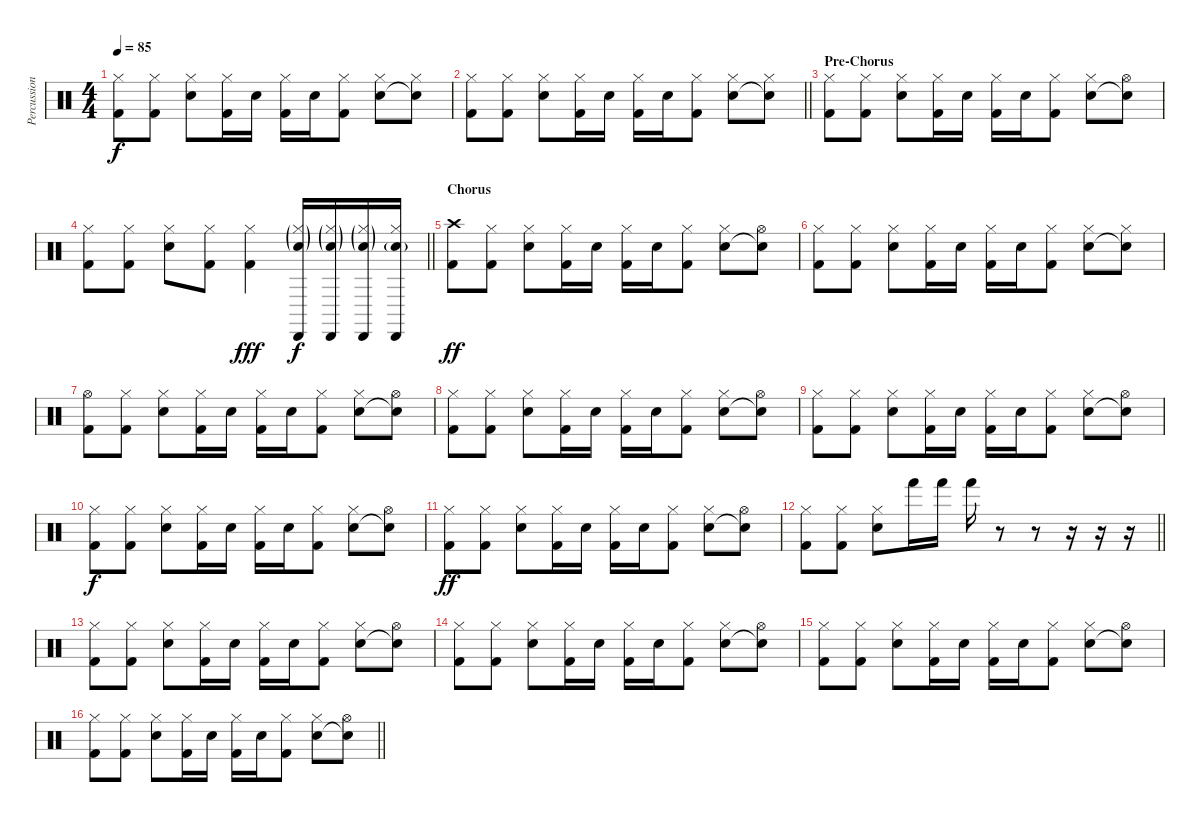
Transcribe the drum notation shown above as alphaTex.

\track ("Percussion" "Percussion") {instrument percussion}
\staff {score}
\articulation defaults
\ts (4 4)
\tempo 85
\clef neutral
\ks c
("Hi-Hat (closed)" "Kick (hit) 2").8{dy f} ("Hi-Hat (closed)" "Kick (hit) 2").8 ("Hi-Hat (closed)" "Electric Snare (hit)").8 ("Hi-Hat (closed)" "Kick (hit) 2").16 "Electric Snare (hit)".16 ("Hi-Hat (closed)" "Kick (hit) 2").16 "Electric Snare (hit)".16 ("Hi-Hat (closed)" "Kick (hit) 2").8 ("Hi-Hat (closed)" "Electric Snare (hit)").8 ("Hi-Hat (closed)" "Snare (hit)"{t}).8 |
\barLineRight lightlight
("Hi-Hat (closed)" "Kick (hit) 2").8 ("Hi-Hat (closed)" "Kick (hit) 2").8 ("Hi-Hat (closed)" "Electric Snare (hit)").8 ("Hi-Hat (closed)" "Kick (hit) 2").16 "Electric Snare (hit)".16 ("Hi-Hat (closed)" "Kick (hit) 2").16 "Electric Snare (hit)".16 ("Hi-Hat (closed)" "Kick (hit) 2").8 ("Hi-Hat (closed)" "Electric Snare (hit)").8 ("Hi-Hat (closed)" "Snare (hit)"{t}).8 |
\section ("" "Pre-Chorus")
("Hi-Hat (closed)" "Kick (hit) 2").8 ("Hi-Hat (closed)" "Kick (hit) 2").8 ("Hi-Hat (closed)" "Electric Snare (hit)").8 ("Hi-Hat (closed)" "Kick (hit) 2").16 "Electric Snare (hit)".16 ("Hi-Hat (closed)" "Kick (hit) 2").16 "Electric Snare (hit)".16 ("Hi-Hat (closed)" "Kick (hit) 2").8 ("Hi-Hat (closed)" "Electric Snare (hit)").8 ("Hi-Hat (open)" "Snare (hit)"{t}).8 |
\barLineRight lightlight
("Hi-Hat (closed)" "Kick (hit) 2").8 ("Hi-Hat (closed)" "Kick (hit) 2").8 ("Hi-Hat (closed)" "Electric Snare (hit)").8 ("Hi-Hat (closed)" "Kick (hit) 2").8 ("Hi-Hat (closed)" "Kick (hit) 2").4{dy fff} ("Hi-Hat (closed)"{g} "Cabasa (hit)" "Electric Snare (hit)"{g}).16{dy f} ("Hi-Hat (closed)"{g} "Cabasa (hit)" "Electric Snare (hit)"{g}).16 ("Hi-Hat (closed)"{g} "Cabasa (hit)" "Electric Snare (hit)"{g}).16 ("Hi-Hat (closed)" "Cabasa (hit)" "Electric Snare (hit)"{g}).16 |
\section ("" "Chorus")
("Crash high (hit)" "Kick (hit) 2").8{dy ff} ("Hi-Hat (closed)" "Kick (hit) 2").8 ("Hi-Hat (closed)" "Electric Snare (hit)").8 ("Hi-Hat (closed)" "Kick (hit) 2").16 "Electric Snare (hit)".16 ("Hi-Hat (closed)" "Kick (hit) 2").16 "Electric Snare (hit)".16 ("Hi-Hat (closed)" "Kick (hit) 2").8 ("Hi-Hat (closed)" "Electric Snare (hit)").8 ("Hi-Hat (open)" "Snare (hit)"{t}).8 |
("Hi-Hat (closed)" "Kick (hit) 2").8 ("Hi-Hat (closed)" "Kick (hit) 2").8 ("Hi-Hat (closed)" "Electric Snare (hit)").8 ("Hi-Hat (closed)" "Kick (hit) 2").16 "Electric Snare (hit)".16 ("Hi-Hat (closed)" "Kick (hit) 2").16 "Electric Snare (hit)".16 ("Hi-Hat (closed)" "Kick (hit) 2").8 ("Hi-Hat (closed)" "Electric Snare (hit)").8 ("Hi-Hat (closed)" "Snare (hit)"{t}).8 |
("Hi-Hat (open)" "Kick (hit) 2").8 ("Hi-Hat (closed)" "Kick (hit) 2").8 ("Hi-Hat (closed)" "Electric Snare (hit)").8 ("Hi-Hat (closed)" "Kick (hit) 2").16 "Electric Snare (hit)".16 ("Hi-Hat (closed)" "Kick (hit) 2").16 "Electric Snare (hit)".16 ("Hi-Hat (closed)" "Kick (hit) 2").8 ("Hi-Hat (closed)" "Electric Snare (hit)").8 ("Hi-Hat (open)" "Snare (hit)"{t}).8 |
("Hi-Hat (closed)" "Kick (hit) 2").8 ("Hi-Hat (closed)" "Kick (hit) 2").8 ("Hi-Hat (closed)" "Electric Snare (hit)").8 ("Hi-Hat (closed)" "Kick (hit) 2").16 "Electric Snare (hit)".16 ("Hi-Hat (closed)" "Kick (hit) 2").16 "Electric Snare (hit)".16 ("Hi-Hat (closed)" "Kick (hit) 2").8 ("Hi-Hat (closed)" "Electric Snare (hit)").8 ("Hi-Hat (open)" "Snare (hit)"{t}).8 |
("Hi-Hat (closed)" "Kick (hit) 2").8 ("Hi-Hat (closed)" "Kick (hit) 2").8 ("Hi-Hat (closed)" "Electric Snare (hit)").8 ("Hi-Hat (closed)" "Kick (hit) 2").16 "Electric Snare (hit)".16 ("Hi-Hat (closed)" "Kick (hit) 2").16 "Electric Snare (hit)".16 ("Hi-Hat (closed)" "Kick (hit) 2").8 ("Hi-Hat (closed)" "Electric Snare (hit)").8 ("Hi-Hat (open)" "Snare (hit)"{t}).8 |
("Hi-Hat (closed)" "Kick (hit) 2").8{dy f} ("Hi-Hat (closed)" "Kick (hit) 2").8 ("Hi-Hat (closed)" "Electric Snare (hit)").8 ("Hi-Hat (closed)" "Kick (hit) 2").16 "Electric Snare (hit)".16 ("Hi-Hat (closed)" "Kick (hit) 2").16 "Electric Snare (hit)".16 ("Hi-Hat (closed)" "Kick (hit) 2").8 ("Hi-Hat (closed)" "Electric Snare (hit)").8 ("Hi-Hat (open)" "Snare (hit)"{t}).8 |
("Hi-Hat (closed)" "Kick (hit) 2").8{dy ff} ("Hi-Hat (closed)" "Kick (hit) 2").8 ("Hi-Hat (closed)" "Electric Snare (hit)").8 ("Hi-Hat (closed)" "Kick (hit) 2").16 "Electric Snare (hit)".16 ("Hi-Hat (closed)" "Kick (hit) 2").16 "Electric Snare (hit)".16 ("Hi-Hat (closed)" "Kick (hit) 2").8 ("Hi-Hat (closed)" "Electric Snare (hit)").8 ("Hi-Hat (open)" "Snare (hit)"{t}).8 |
\barLineRight lightlight
("Hi-Hat (closed)" "Kick (hit) 2").8 ("Hi-Hat (closed)" "Kick (hit) 2").8 ("Hi-Hat (closed)" "Electric Snare (hit)").8 "Hand (hit)".16 "Hand (hit)".16 "Hand (hit)".16 r.8 r.8 r.16 r.16 r.16 |
("Hi-Hat (closed)" "Kick (hit) 2").8 ("Hi-Hat (closed)" "Kick (hit) 2").8 ("Hi-Hat (closed)" "Electric Snare (hit)").8 ("Hi-Hat (closed)" "Kick (hit) 2").16 "Electric Snare (hit)".16 ("Hi-Hat (closed)" "Kick (hit) 2").16 "Electric Snare (hit)".16 ("Hi-Hat (closed)" "Kick (hit) 2").8 ("Hi-Hat (closed)" "Electric Snare (hit)").8 ("Hi-Hat (open)" "Snare (hit)"{t}).8 |
("Hi-Hat (closed)" "Kick (hit) 2").8 ("Hi-Hat (closed)" "Kick (hit) 2").8 ("Hi-Hat (closed)" "Electric Snare (hit)").8 ("Hi-Hat (closed)" "Kick (hit) 2").16 "Electric Snare (hit)".16 ("Hi-Hat (closed)" "Kick (hit) 2").16 "Electric Snare (hit)".16 ("Hi-Hat (closed)" "Kick (hit) 2").8 ("Hi-Hat (closed)" "Electric Snare (hit)").8 ("Hi-Hat (open)" "Snare (hit)"{t}).8 |
("Hi-Hat (closed)" "Kick (hit) 2").8 ("Hi-Hat (closed)" "Kick (hit) 2").8 ("Hi-Hat (closed)" "Electric Snare (hit)").8 ("Hi-Hat (closed)" "Kick (hit) 2").16 "Electric Snare (hit)".16 ("Hi-Hat (closed)" "Kick (hit) 2").16 "Electric Snare (hit)".16 ("Hi-Hat (closed)" "Kick (hit) 2").8 ("Hi-Hat (closed)" "Electric Snare (hit)").8 ("Hi-Hat (open)" "Snare (hit)"{t}).8 |
\barLineRight lightlight
("Hi-Hat (closed)" "Kick (hit) 2").8 ("Hi-Hat (closed)" "Kick (hit) 2").8 ("Hi-Hat (closed)" "Electric Snare (hit)").8 ("Hi-Hat (closed)" "Kick (hit) 2").16 "Electric Snare (hit)".16 ("Hi-Hat (closed)" "Kick (hit) 2").16 "Electric Snare (hit)".16 ("Hi-Hat (closed)" "Kick (hit) 2").8 ("Hi-Hat (closed)" "Electric Snare (hit)").8 ("Hi-Hat (open)" "Snare (hit)"{t}).8
